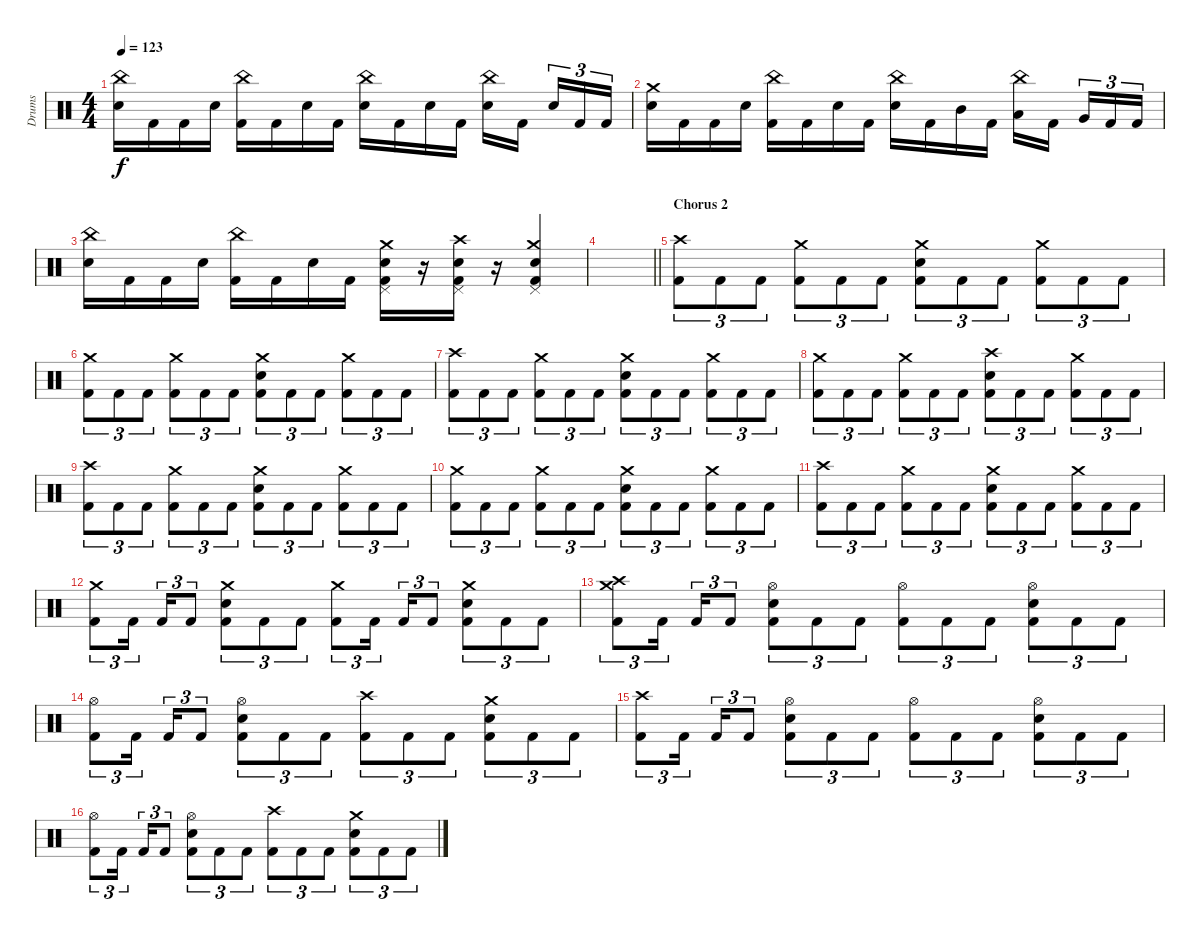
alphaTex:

\track ("Drums" "Drums") {instrument percussion}
\staff {score}
\articulation defaults
\ts (4 4)
\tempo 123
\clef neutral
\ks c
("China (hit)" "Snare (hit) 2").16{dy f} "Kick (hit) 2".16 "Kick (hit) 2".16 "Snare (hit) 2".16 ("China (hit)" "Kick (hit) 2").16 "Kick (hit) 2".16 "Snare (hit) 2".16 "Kick (hit) 2".16 ("China (hit)" "Snare (hit) 2").16 "Kick (hit) 2".16 "Snare (hit) 2".16 "Kick (hit) 2".16 ("China (hit)" "Snare (hit) 2").16 "Kick (hit) 2".16{beam splitsecondary} "Snare (hit) 2".16{tu (3 2)} "Kick (hit) 2".16{tu (3 2)} "Kick (hit) 2".16{tu (3 2)} |
("Crash medium (hit)" "Snare (hit) 2").16 "Kick (hit) 2".16 "Kick (hit) 2".16 "Snare (hit) 2".16 ("China (hit)" "Kick (hit) 2").16 "Kick (hit) 2".16 "Snare (hit) 2".16 "Kick (hit) 2".16 ("China (hit)" "Snare (hit) 2").16 "Kick (hit) 2".16 "Mid Tom (hit)".16 "Kick (hit) 2".16 ("China (hit)" "Low Tom (hit)").16 "Kick (hit) 2".16{beam splitsecondary} "Very Low Tom (hit)".16{tu (3 2)} "Kick (hit) 2".16{tu (3 2)} "Kick (hit) 2".16{tu (3 2)} |
("China (hit)" "Snare (hit) 2").16 "Kick (hit) 2".16 "Kick (hit) 2".16 "Snare (hit) 2".16 ("China (hit)" "Kick (hit) 2").16 "Kick (hit) 2".16 "Snare (hit) 2".16 "Kick (hit) 2".16 ("Crash medium (hit)" "Pedal Hi-Hat (hit)" "Snare (hit) 2" "Kick (hit) 2").16 r.16 ("Crash high (hit)" "Pedal Hi-Hat (hit)" "Snare (hit) 2" "Kick (hit) 2").16 r.16 ("Crash medium (hit)" "Pedal Hi-Hat (hit)" "Snare (hit) 2" "Kick (hit) 2").4 |
\barLineRight lightlight
|
\section ("" "Chorus 2")
("Crash high (hit)" "Kick (hit) 2").8{tu (3 2)} "Kick (hit) 2".8{tu (3 2)} "Kick (hit) 2".8{tu (3 2)} ("Crash medium (hit)" "Kick (hit) 2").8{tu (3 2)} "Kick (hit) 2".8{tu (3 2)} "Kick (hit) 2".8{tu (3 2)} ("Crash medium (hit)" "Snare (hit) 2" "Kick (hit) 2").8{tu (3 2)} "Kick (hit) 2".8{tu (3 2)} "Kick (hit) 2".8{tu (3 2)} ("Crash medium (hit)" "Kick (hit) 2").8{tu (3 2)} "Kick (hit) 2".8{tu (3 2)} "Kick (hit) 2".8{tu (3 2)} |
("Crash medium (hit)" "Kick (hit) 2").8{tu (3 2)} "Kick (hit) 2".8{tu (3 2)} "Kick (hit) 2".8{tu (3 2)} ("Crash medium (hit)" "Kick (hit) 2").8{tu (3 2)} "Kick (hit) 2".8{tu (3 2)} "Kick (hit) 2".8{tu (3 2)} ("Crash medium (hit)" "Snare (hit) 2" "Kick (hit) 2").8{tu (3 2)} "Kick (hit) 2".8{tu (3 2)} "Kick (hit) 2".8{tu (3 2)} ("Crash medium (hit)" "Kick (hit) 2").8{tu (3 2)} "Kick (hit) 2".8{tu (3 2)} "Kick (hit) 2".8{tu (3 2)} |
("Crash high (hit)" "Kick (hit) 2").8{tu (3 2)} "Kick (hit) 2".8{tu (3 2)} "Kick (hit) 2".8{tu (3 2)} ("Crash medium (hit)" "Kick (hit) 2").8{tu (3 2)} "Kick (hit) 2".8{tu (3 2)} "Kick (hit) 2".8{tu (3 2)} ("Crash medium (hit)" "Snare (hit) 2" "Kick (hit) 2").8{tu (3 2)} "Kick (hit) 2".8{tu (3 2)} "Kick (hit) 2".8{tu (3 2)} ("Crash medium (hit)" "Kick (hit) 2").8{tu (3 2)} "Kick (hit) 2".8{tu (3 2)} "Kick (hit) 2".8{tu (3 2)} |
("Crash medium (hit)" "Kick (hit) 2").8{tu (3 2)} "Kick (hit) 2".8{tu (3 2)} "Kick (hit) 2".8{tu (3 2)} ("Crash medium (hit)" "Kick (hit) 2").8{tu (3 2)} "Kick (hit) 2".8{tu (3 2)} "Kick (hit) 2".8{tu (3 2)} ("Crash high (hit)" "Snare (hit) 2" "Kick (hit) 2").8{tu (3 2)} "Kick (hit) 2".8{tu (3 2)} "Kick (hit) 2".8{tu (3 2)} ("Crash medium (hit)" "Kick (hit) 2").8{tu (3 2)} "Kick (hit) 2".8{tu (3 2)} "Kick (hit) 2".8{tu (3 2)} |
("Crash high (hit)" "Kick (hit) 2").8{tu (3 2)} "Kick (hit) 2".8{tu (3 2)} "Kick (hit) 2".8{tu (3 2)} ("Crash medium (hit)" "Kick (hit) 2").8{tu (3 2)} "Kick (hit) 2".8{tu (3 2)} "Kick (hit) 2".8{tu (3 2)} ("Crash medium (hit)" "Snare (hit) 2" "Kick (hit) 2").8{tu (3 2)} "Kick (hit) 2".8{tu (3 2)} "Kick (hit) 2".8{tu (3 2)} ("Crash medium (hit)" "Kick (hit) 2").8{tu (3 2)} "Kick (hit) 2".8{tu (3 2)} "Kick (hit) 2".8{tu (3 2)} |
("Crash medium (hit)" "Kick (hit) 2").8{tu (3 2)} "Kick (hit) 2".8{tu (3 2)} "Kick (hit) 2".8{tu (3 2)} ("Crash medium (hit)" "Kick (hit) 2").8{tu (3 2)} "Kick (hit) 2".8{tu (3 2)} "Kick (hit) 2".8{tu (3 2)} ("Crash medium (hit)" "Snare (hit) 2" "Kick (hit) 2").8{tu (3 2)} "Kick (hit) 2".8{tu (3 2)} "Kick (hit) 2".8{tu (3 2)} ("Crash medium (hit)" "Kick (hit) 2").8{tu (3 2)} "Kick (hit) 2".8{tu (3 2)} "Kick (hit) 2".8{tu (3 2)} |
("Crash high (hit)" "Kick (hit) 2").8{tu (3 2)} "Kick (hit) 2".8{tu (3 2)} "Kick (hit) 2".8{tu (3 2)} ("Crash medium (hit)" "Kick (hit) 2").8{tu (3 2)} "Kick (hit) 2".8{tu (3 2)} "Kick (hit) 2".8{tu (3 2)} ("Crash medium (hit)" "Snare (hit) 2" "Kick (hit) 2").8{tu (3 2)} "Kick (hit) 2".8{tu (3 2)} "Kick (hit) 2".8{tu (3 2)} ("Crash medium (hit)" "Kick (hit) 2").8{tu (3 2)} "Kick (hit) 2".8{tu (3 2)} "Kick (hit) 2".8{tu (3 2)} |
("Crash medium (hit)" "Kick (hit) 2").8{tu (3 2)} "Kick (hit) 2".16{tu (3 2) beam splitsecondary} "Kick (hit) 2".16{tu (3 2)} "Kick (hit) 2".8{tu (3 2)} ("Crash medium (hit)" "Snare (hit) 2" "Kick (hit) 2").8{tu (3 2)} "Kick (hit) 2".8{tu (3 2)} "Kick (hit) 2".8{tu (3 2)} ("Crash medium (hit)" "Kick (hit) 2").8{tu (3 2)} "Kick (hit) 2".16{tu (3 2) beam splitsecondary} "Kick (hit) 2".16{tu (3 2)} "Kick (hit) 2".8{tu (3 2)} ("Crash medium (hit)" "Snare (hit) 2" "Kick (hit) 2").8{tu (3 2)} "Kick (hit) 2".8{tu (3 2)} "Kick (hit) 2".8{tu (3 2)} |
("Crash high (hit)" "Crash medium (hit)" "Kick (hit) 2").8{tu (3 2)} "Kick (hit) 2".16{tu (3 2) beam splitsecondary} "Kick (hit) 2".16{tu (3 2)} "Kick (hit) 2".8{tu (3 2)} ("Hi-Hat (open)" "Snare (hit) 2" "Kick (hit) 2").8{tu (3 2)} "Kick (hit) 2".8{tu (3 2)} "Kick (hit) 2".8{tu (3 2)} ("Hi-Hat (open)" "Kick (hit) 2").8{tu (3 2)} "Kick (hit) 2".8{tu (3 2)} "Kick (hit) 2".8{tu (3 2)} ("Hi-Hat (open)" "Snare (hit) 2" "Kick (hit) 2").8{tu (3 2)} "Kick (hit) 2".8{tu (3 2)} "Kick (hit) 2".8{tu (3 2)} |
("Hi-Hat (open)" "Kick (hit) 2").8{tu (3 2)} "Kick (hit) 2".16{tu (3 2) beam splitsecondary} "Kick (hit) 2".16{tu (3 2)} "Kick (hit) 2".8{tu (3 2)} ("Hi-Hat (open)" "Snare (hit) 2" "Kick (hit) 2").8{tu (3 2)} "Kick (hit) 2".8{tu (3 2)} "Kick (hit) 2".8{tu (3 2)} ("Crash high (hit)" "Kick (hit) 2").8{tu (3 2)} "Kick (hit) 2".8{tu (3 2)} "Kick (hit) 2".8{tu (3 2)} ("Crash medium (hit)" "Snare (hit) 2" "Kick (hit) 2").8{tu (3 2)} "Kick (hit) 2".8{tu (3 2)} "Kick (hit) 2".8{tu (3 2)} |
("Crash high (hit)" "Kick (hit) 2").8{tu (3 2)} "Kick (hit) 2".16{tu (3 2) beam splitsecondary} "Kick (hit) 2".16{tu (3 2)} "Kick (hit) 2".8{tu (3 2)} ("Hi-Hat (open)" "Snare (hit) 2" "Kick (hit) 2").8{tu (3 2)} "Kick (hit) 2".8{tu (3 2)} "Kick (hit) 2".8{tu (3 2)} ("Hi-Hat (open)" "Kick (hit) 2").8{tu (3 2)} "Kick (hit) 2".8{tu (3 2)} "Kick (hit) 2".8{tu (3 2)} ("Hi-Hat (open)" "Snare (hit) 2" "Kick (hit) 2").8{tu (3 2)} "Kick (hit) 2".8{tu (3 2)} "Kick (hit) 2".8{tu (3 2)} |
("Hi-Hat (open)" "Kick (hit) 2").8{tu (3 2)} "Kick (hit) 2".16{tu (3 2) beam splitsecondary} "Kick (hit) 2".16{tu (3 2)} "Kick (hit) 2".8{tu (3 2)} ("Hi-Hat (open)" "Snare (hit) 2" "Kick (hit) 2").8{tu (3 2)} "Kick (hit) 2".8{tu (3 2)} "Kick (hit) 2".8{tu (3 2)} ("Crash high (hit)" "Kick (hit) 2").8{tu (3 2)} "Kick (hit) 2".8{tu (3 2)} "Kick (hit) 2".8{tu (3 2)} ("Crash medium (hit)" "Snare (hit) 2" "Kick (hit) 2").8{tu (3 2)} "Kick (hit) 2".8{tu (3 2)} "Kick (hit) 2".8{tu (3 2)}
